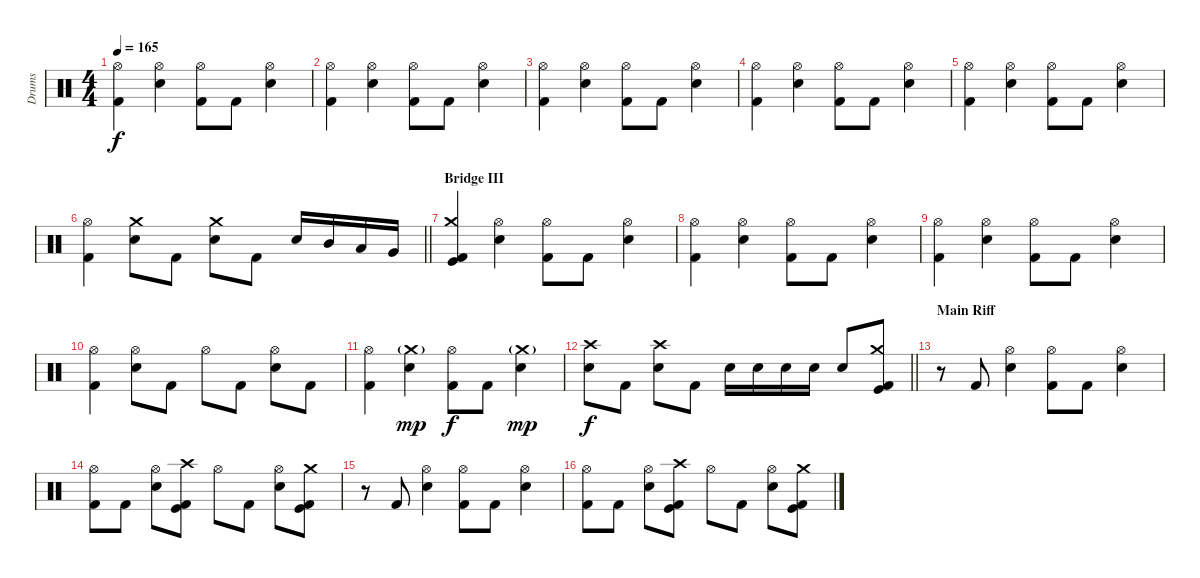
\track ("Drums" "Drums") {instrument percussion}
\staff {score}
\articulation defaults
\ts (4 4)
\tempo 165
\clef neutral
\ks c
("Hi-Hat (open)" "Kick (hit) 2").4{dy f} ("Hi-Hat (open)" "Electric Snare (hit)").4 ("Hi-Hat (open)" "Kick (hit) 2").8 "Kick (hit) 2".8 ("Hi-Hat (open)" "Electric Snare (hit)").4 |
("Hi-Hat (open)" "Kick (hit) 2").4 ("Hi-Hat (open)" "Electric Snare (hit)").4 ("Hi-Hat (open)" "Kick (hit) 2").8 "Kick (hit) 2".8 ("Hi-Hat (open)" "Electric Snare (hit)").4 |
("Hi-Hat (open)" "Kick (hit) 2").4 ("Hi-Hat (open)" "Electric Snare (hit)").4 ("Hi-Hat (open)" "Kick (hit) 2").8 "Kick (hit) 2".8 ("Hi-Hat (open)" "Electric Snare (hit)").4 |
("Hi-Hat (open)" "Kick (hit) 2").4 ("Hi-Hat (open)" "Electric Snare (hit)").4 ("Hi-Hat (open)" "Kick (hit) 2").8 "Kick (hit) 2".8 ("Hi-Hat (open)" "Electric Snare (hit)").4 |
("Hi-Hat (open)" "Kick (hit) 2").4 ("Hi-Hat (open)" "Electric Snare (hit)").4 ("Hi-Hat (open)" "Kick (hit) 2").8 "Kick (hit) 2".8 ("Hi-Hat (open)" "Electric Snare (hit)").4 |
\barLineRight lightlight
("Hi-Hat (open)" "Kick (hit) 2").4 ("Crash medium (hit)" "Electric Snare (hit)").8 "Kick (hit) 2".8 ("Crash medium (hit)" "Electric Snare (hit)").8 "Kick (hit) 2".8 "Electric Snare (hit)".16 "Mid Tom (hit)".16 "Low Tom (hit)".16 "Very Low Tom (hit)".16 |
\section ("" "Bridge III")
("Crash medium (hit)" "Kick (hit) 2" "Kick (hit)").4 ("Hi-Hat (open)" "Electric Snare (hit)").4 ("Hi-Hat (open)" "Kick (hit) 2").8 "Kick (hit) 2".8 ("Hi-Hat (open)" "Electric Snare (hit)").4 |
("Hi-Hat (open)" "Kick (hit) 2").4 ("Hi-Hat (open)" "Electric Snare (hit)").4 ("Hi-Hat (open)" "Kick (hit) 2").8 "Kick (hit) 2".8 ("Hi-Hat (open)" "Electric Snare (hit)").4 |
("Hi-Hat (open)" "Kick (hit) 2").4 ("Hi-Hat (open)" "Electric Snare (hit)").4 ("Hi-Hat (open)" "Kick (hit) 2").8 "Kick (hit) 2".8 ("Hi-Hat (open)" "Electric Snare (hit)").4 |
("Hi-Hat (open)" "Kick (hit) 2").4 ("Hi-Hat (open)" "Electric Snare (hit)").8 "Kick (hit) 2".8 "Hi-Hat (open)".8 "Kick (hit) 2".8 ("Hi-Hat (open)" "Electric Snare (hit)").8 "Kick (hit) 2".8 |
("Hi-Hat (open)" "Kick (hit) 2").4 ("Crash medium (hit)"{g} "Electric Snare (hit)").4{dy mp} ("Hi-Hat (open)" "Kick (hit) 2").8{dy f} "Kick (hit) 2".8 ("Crash medium (hit)"{g} "Electric Snare (hit)").4{dy mp} |
\barLineRight lightlight
("Crash high (hit)" "Electric Snare (hit)").8{dy f} "Kick (hit) 2".8 ("Crash high (hit)" "Electric Snare (hit)").8 "Kick (hit) 2".8 "Electric Snare (hit)".16 "Electric Snare (hit)".16 "Electric Snare (hit)".16 "Electric Snare (hit)".16 "Electric Snare (hit)".8 ("Crash medium (hit)" "Kick (hit) 2" "Kick (hit)").8 |
\section ("" "Main Riff")
r.8 "Kick (hit) 2".8 ("Hi-Hat (open)" "Electric Snare (hit)").4 ("Hi-Hat (open)" "Kick (hit) 2").8 "Kick (hit) 2".8 ("Hi-Hat (open)" "Electric Snare (hit)").4 |
("Hi-Hat (open)" "Kick (hit) 2").8 "Kick (hit) 2".8 ("Hi-Hat (open)" "Electric Snare (hit)").8 ("Crash high (hit)" "Kick (hit) 2" "Kick (hit)").8 "Hi-Hat (open)".8 "Kick (hit) 2".8 ("Hi-Hat (open)" "Electric Snare (hit)").8 ("Crash medium (hit)" "Kick (hit) 2" "Kick (hit)").8 |
r.8 "Kick (hit) 2".8 ("Hi-Hat (open)" "Electric Snare (hit)").4 ("Hi-Hat (open)" "Kick (hit) 2").8 "Kick (hit) 2".8 ("Hi-Hat (open)" "Electric Snare (hit)").4 |
("Hi-Hat (open)" "Kick (hit) 2").8 "Kick (hit) 2".8 ("Hi-Hat (open)" "Electric Snare (hit)").8 ("Crash high (hit)" "Kick (hit) 2" "Kick (hit)").8 "Hi-Hat (open)".8 "Kick (hit) 2".8 ("Hi-Hat (open)" "Electric Snare (hit)").8 ("Crash medium (hit)" "Kick (hit) 2" "Kick (hit)").8
